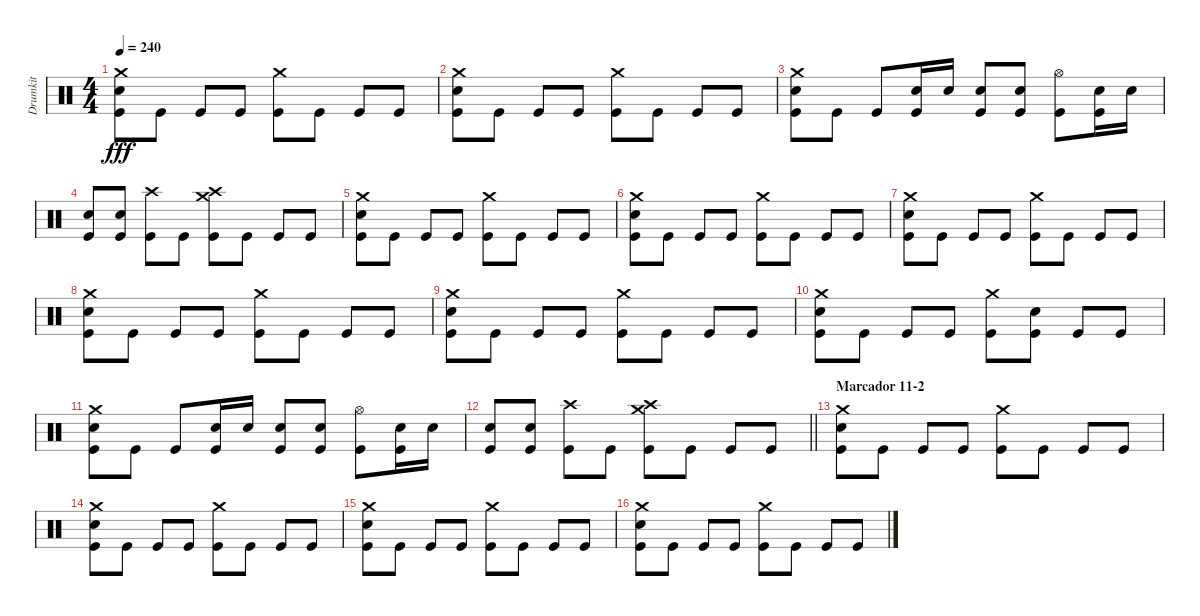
\track ("Drumkit" "Drumkit") {instrument percussion}
\staff {score}
\articulation defaults
\ts (4 4)
\tempo 240
\clef neutral
\ks c
("Crash medium (hit)" "Snare (hit) 2" "Kick (hit)").8{dy fff} "Kick (hit)".8 "Kick (hit)".8 "Kick (hit)".8 ("Crash medium (hit)" "Kick (hit)").8 "Kick (hit)".8 "Kick (hit)".8 "Kick (hit)".8 |
("Crash medium (hit)" "Snare (hit) 2" "Kick (hit)").8 "Kick (hit)".8 "Kick (hit)".8 "Kick (hit)".8 ("Crash medium (hit)" "Kick (hit)").8 "Kick (hit)".8 "Kick (hit)".8 "Kick (hit)".8 |
("Crash medium (hit)" "Snare (hit) 2" "Kick (hit)").8 "Kick (hit)".8 "Kick (hit)".8 ("Snare (hit) 2" "Kick (hit)").16 "Snare (hit) 2".16 ("Snare (hit) 2" "Kick (hit)").8 ("Snare (hit) 2" "Kick (hit)").8 ("Hi-Hat (open)" "Kick (hit)").8 ("Snare (hit) 2" "Kick (hit)").16 "Snare (hit) 2".16 |
("Snare (hit) 2" "Kick (hit)").8 ("Snare (hit) 2" "Kick (hit)").8 ("Crash high (hit)" "Kick (hit)").8 "Kick (hit)".8 ("Crash high (hit)" "Crash medium (hit)" "Kick (hit)").8 "Kick (hit)".8 "Kick (hit)".8 "Kick (hit)".8 |
("Crash medium (hit)" "Snare (hit) 2" "Kick (hit)").8 "Kick (hit)".8 "Kick (hit)".8 "Kick (hit)".8 ("Crash medium (hit)" "Kick (hit)").8 "Kick (hit)".8 "Kick (hit)".8 "Kick (hit)".8 |
("Crash medium (hit)" "Snare (hit) 2" "Kick (hit)").8 "Kick (hit)".8 "Kick (hit)".8 "Kick (hit)".8 ("Crash medium (hit)" "Kick (hit)").8 "Kick (hit)".8 "Kick (hit)".8 "Kick (hit)".8 |
("Crash medium (hit)" "Snare (hit) 2" "Kick (hit)").8 "Kick (hit)".8 "Kick (hit)".8 "Kick (hit)".8 ("Crash medium (hit)" "Kick (hit)").8 "Kick (hit)".8 "Kick (hit)".8 "Kick (hit)".8 |
("Crash medium (hit)" "Snare (hit) 2" "Kick (hit)").8 "Kick (hit)".8 "Kick (hit)".8 "Kick (hit)".8 ("Crash medium (hit)" "Kick (hit)").8 "Kick (hit)".8 "Kick (hit)".8 "Kick (hit)".8 |
("Crash medium (hit)" "Snare (hit) 2" "Kick (hit)").8 "Kick (hit)".8 "Kick (hit)".8 "Kick (hit)".8 ("Crash medium (hit)" "Kick (hit)").8 "Kick (hit)".8 "Kick (hit)".8 "Kick (hit)".8 |
("Crash medium (hit)" "Snare (hit) 2" "Kick (hit)").8 "Kick (hit)".8 "Kick (hit)".8 "Kick (hit)".8 ("Crash medium (hit)" "Kick (hit)").8 ("Snare (hit) 2" "Kick (hit)").8 "Kick (hit)".8 "Kick (hit)".8 |
("Crash medium (hit)" "Snare (hit) 2" "Kick (hit)").8 "Kick (hit)".8 "Kick (hit)".8 ("Snare (hit) 2" "Kick (hit)").16 "Snare (hit) 2".16 ("Snare (hit) 2" "Kick (hit)").8 ("Snare (hit) 2" "Kick (hit)").8 ("Hi-Hat (open)" "Kick (hit)").8 ("Snare (hit) 2" "Kick (hit)").16 "Snare (hit) 2".16 |
\barLineRight lightlight
("Snare (hit) 2" "Kick (hit)").8 ("Snare (hit) 2" "Kick (hit)").8 ("Crash high (hit)" "Kick (hit)").8 "Kick (hit)".8 ("Crash high (hit)" "Crash medium (hit)" "Kick (hit)").8 "Kick (hit)".8 "Kick (hit)".8 "Kick (hit)".8 |
\section ("" "Marcador 11-2")
("Crash medium (hit)" "Snare (hit) 2" "Kick (hit)").8 "Kick (hit)".8 "Kick (hit)".8 "Kick (hit)".8 ("Crash medium (hit)" "Kick (hit)").8 "Kick (hit)".8 "Kick (hit)".8 "Kick (hit)".8 |
("Crash medium (hit)" "Snare (hit) 2" "Kick (hit)").8 "Kick (hit)".8 "Kick (hit)".8 "Kick (hit)".8 ("Crash medium (hit)" "Kick (hit)").8 "Kick (hit)".8 "Kick (hit)".8 "Kick (hit)".8 |
("Crash medium (hit)" "Snare (hit) 2" "Kick (hit)").8 "Kick (hit)".8 "Kick (hit)".8 "Kick (hit)".8 ("Crash medium (hit)" "Kick (hit)").8 "Kick (hit)".8 "Kick (hit)".8 "Kick (hit)".8 |
("Crash medium (hit)" "Snare (hit) 2" "Kick (hit)").8 "Kick (hit)".8 "Kick (hit)".8 "Kick (hit)".8 ("Crash medium (hit)" "Kick (hit)").8 "Kick (hit)".8 "Kick (hit)".8 "Kick (hit)".8
